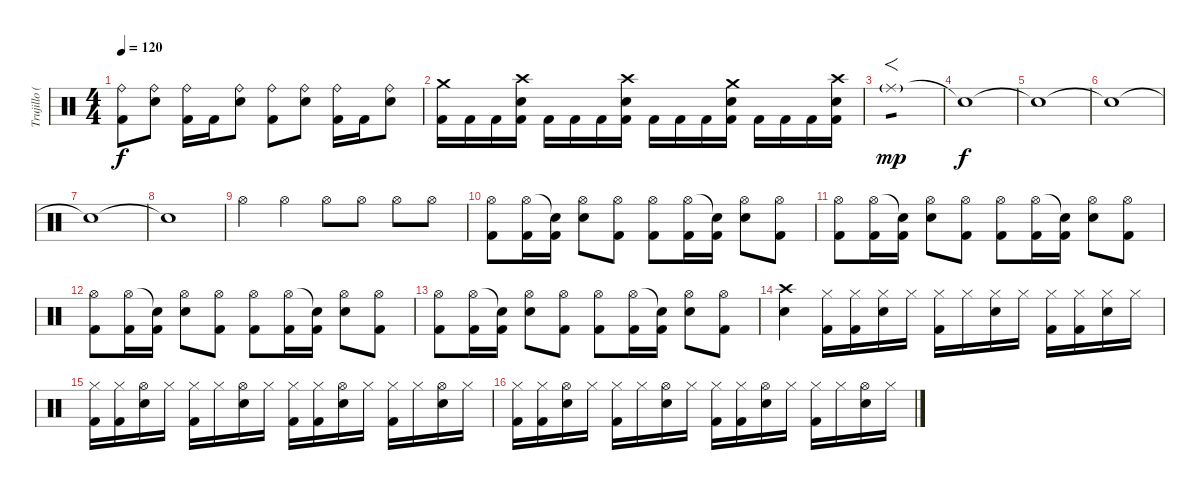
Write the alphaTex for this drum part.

\track ("Trujillo (Percussion)" "Trujillo (") {instrument percussion}
\staff {score}
\articulation defaults
\ts (4 4)
\tempo 120
\clef neutral
\ks c
("Ride (bell)" "Kick (hit) 2").8{dy f} ("Ride (bell)" "Electric Snare (hit)").8 ("Ride (bell)" "Kick (hit) 2").16 "Kick (hit) 2".16 ("Ride (bell)" "Electric Snare (hit)").8 ("Ride (bell)" "Kick (hit) 2").8 ("Ride (bell)" "Electric Snare (hit)").8 ("Ride (bell)" "Kick (hit) 2").16 "Kick (hit) 2".16 ("Ride (bell)" "Electric Snare (hit)").8 |
("Crash medium (hit)" "Kick (hit) 2").16 "Kick (hit) 2".16 "Kick (hit) 2".16 ("Crash high (hit)" "Electric Snare (hit)" "Kick (hit) 2").16 "Kick (hit) 2".16 "Kick (hit) 2".16 "Kick (hit) 2".16 ("Crash high (hit)" "Electric Snare (hit)" "Kick (hit) 2").16 "Kick (hit) 2".16 "Kick (hit) 2".16 "Kick (hit) 2".16 ("Crash medium (hit)" "Electric Snare (hit)" "Kick (hit) 2").16 "Kick (hit) 2".16 "Kick (hit) 2".16 "Kick (hit) 2".16 ("Crash high (hit)" "Electric Snare (hit)" "Kick (hit) 2").16 |
"Ride (middle)"{g}.1{f tp 1 dy mp} |
"Snare (hit)"{t}.1{dy f} |
"Snare (hit)"{t}.1 |
"Snare (hit)"{t}.1 |
"Snare (hit)"{t}.1 |
"Snare (hit)"{t}.1 |
"Hi-Hat (open)".4 "Hi-Hat (open)".4 "Hi-Hat (open)".8 "Hi-Hat (open)".8 "Hi-Hat (open)".8 "Hi-Hat (open)".8 |
("Hi-Hat (open)" "Kick (hit) 2").8 ("Hi-Hat (open)" "Kick (hit) 2").16 ("Snare (hit)"{t} "Kick (hit) 2").16 ("Hi-Hat (open)" "Electric Snare (hit)").8 ("Hi-Hat (open)" "Kick (hit) 2").8 ("Hi-Hat (open)" "Kick (hit) 2").8 ("Hi-Hat (open)" "Kick (hit) 2").16 ("Snare (hit)"{t} "Kick (hit) 2").16 ("Hi-Hat (open)" "Electric Snare (hit)").8 ("Hi-Hat (open)" "Kick (hit) 2").8 |
("Hi-Hat (open)" "Kick (hit) 2").8 ("Hi-Hat (open)" "Kick (hit) 2").16 ("Snare (hit)"{t} "Kick (hit) 2").16 ("Hi-Hat (open)" "Electric Snare (hit)").8 ("Hi-Hat (open)" "Kick (hit) 2").8 ("Hi-Hat (open)" "Kick (hit) 2").8 ("Hi-Hat (open)" "Kick (hit) 2").16 ("Snare (hit)"{t} "Kick (hit) 2").16 ("Hi-Hat (open)" "Electric Snare (hit)").8 ("Hi-Hat (open)" "Kick (hit) 2").8 |
("Hi-Hat (open)" "Kick (hit) 2").8 ("Hi-Hat (open)" "Kick (hit) 2").16 ("Snare (hit)"{t} "Kick (hit) 2").16 ("Hi-Hat (open)" "Electric Snare (hit)").8 ("Hi-Hat (open)" "Kick (hit) 2").8 ("Hi-Hat (open)" "Kick (hit) 2").8 ("Hi-Hat (open)" "Kick (hit) 2").16 ("Snare (hit)"{t} "Kick (hit) 2").16 ("Hi-Hat (open)" "Electric Snare (hit)").8 ("Hi-Hat (open)" "Kick (hit) 2").8 |
("Hi-Hat (open)" "Kick (hit) 2").8 ("Hi-Hat (open)" "Kick (hit) 2").16 ("Snare (hit)"{t} "Kick (hit) 2").16 ("Hi-Hat (open)" "Electric Snare (hit)").8 ("Hi-Hat (open)" "Kick (hit) 2").8 ("Hi-Hat (open)" "Kick (hit) 2").8 ("Hi-Hat (open)" "Kick (hit) 2").16 ("Snare (hit)"{t} "Kick (hit) 2").16 ("Hi-Hat (open)" "Electric Snare (hit)").8 ("Hi-Hat (open)" "Kick (hit) 2").8 |
("Crash high (hit)" "Electric Snare (hit)").4 ("Hi-Hat (closed)" "Kick (hit) 2").16 ("Hi-Hat (closed)" "Kick (hit) 2").16 ("Hi-Hat (closed)" "Electric Snare (hit)").16 "Hi-Hat (closed)".16 ("Hi-Hat (closed)" "Kick (hit) 2").16 "Hi-Hat (closed)".16 ("Hi-Hat (closed)" "Electric Snare (hit)").16 "Hi-Hat (closed)".16 ("Hi-Hat (closed)" "Kick (hit) 2").16 ("Hi-Hat (closed)" "Kick (hit) 2").16 ("Hi-Hat (closed)" "Electric Snare (hit)").16 "Hi-Hat (closed)".16 |
("Hi-Hat (closed)" "Kick (hit) 2").16 ("Hi-Hat (closed)" "Kick (hit) 2").16 ("Hi-Hat (open)" "Electric Snare (hit)").16 "Hi-Hat (closed)".16 ("Hi-Hat (closed)" "Kick (hit) 2").16 "Hi-Hat (closed)".16 ("Hi-Hat (open)" "Electric Snare (hit)").16 "Hi-Hat (closed)".16 ("Hi-Hat (closed)" "Kick (hit) 2").16 ("Hi-Hat (closed)" "Kick (hit) 2").16 ("Hi-Hat (open)" "Electric Snare (hit)").16 "Hi-Hat (closed)".16 ("Hi-Hat (closed)" "Kick (hit) 2").16 "Hi-Hat (closed)".16 ("Hi-Hat (open)" "Electric Snare (hit)").16 "Hi-Hat (closed)".16 |
("Hi-Hat (closed)" "Kick (hit) 2").16 ("Hi-Hat (closed)" "Kick (hit) 2").16 ("Hi-Hat (open)" "Electric Snare (hit)").16 "Hi-Hat (closed)".16 ("Hi-Hat (closed)" "Kick (hit) 2").16 "Hi-Hat (closed)".16 ("Hi-Hat (open)" "Electric Snare (hit)").16 "Hi-Hat (closed)".16 ("Hi-Hat (closed)" "Kick (hit) 2").16 ("Hi-Hat (closed)" "Kick (hit) 2").16 ("Hi-Hat (open)" "Electric Snare (hit)").16 "Hi-Hat (closed)".16 ("Hi-Hat (closed)" "Kick (hit) 2").16 "Hi-Hat (closed)".16 ("Hi-Hat (open)" "Electric Snare (hit)").16 "Hi-Hat (closed)".16
